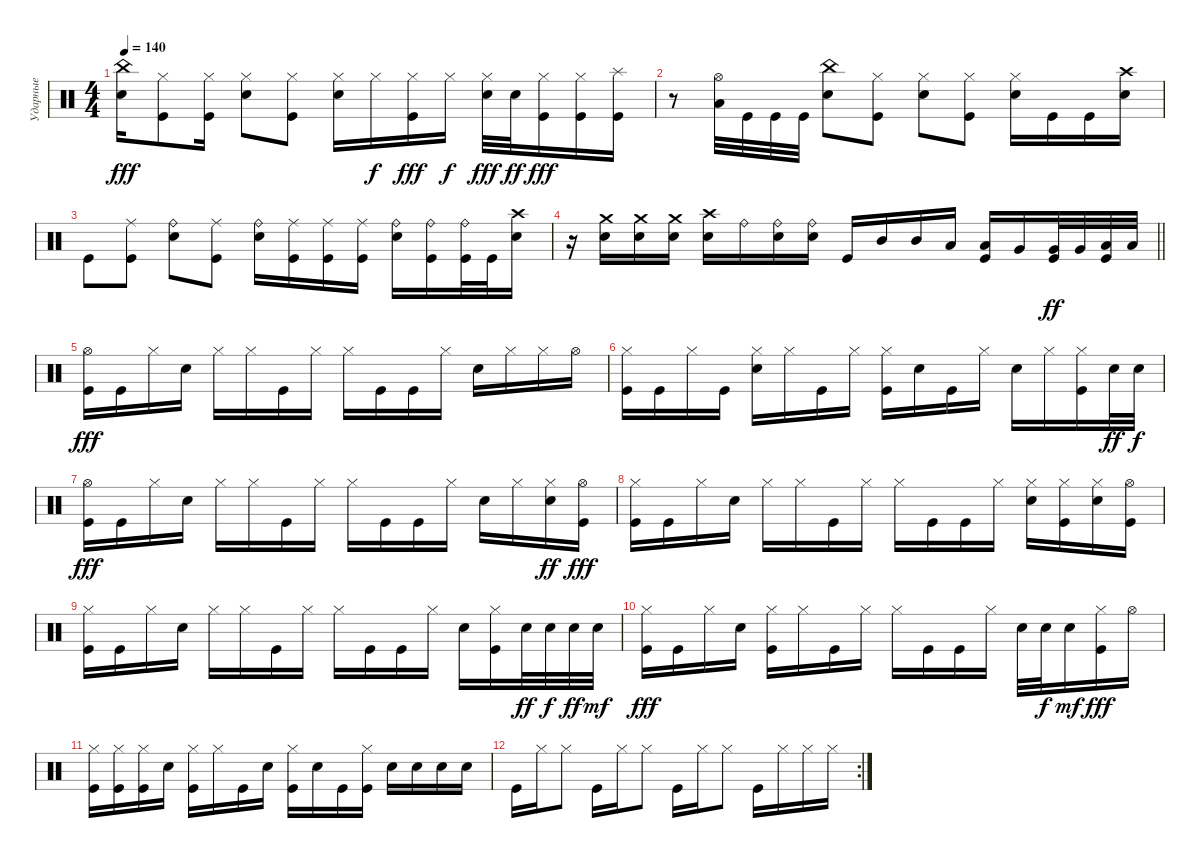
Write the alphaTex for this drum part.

\track ("Ударные" "Ударные") {instrument percussion}
\staff {score}
\articulation defaults
\ts (4 4)
\tempo 140
\clef neutral
\ks c
("China (hit)" "Electric Snare (hit)").16{dy fff} ("Hi-Hat (closed)" "Kick (hit)").8 ("Hi-Hat (closed)" "Kick (hit)").16 ("Hi-Hat (closed)" "Electric Snare (hit)").8 ("Hi-Hat (closed)" "Kick (hit)").8 ("Hi-Hat (closed)" "Electric Snare (hit)").16 "Hi-Hat (closed)".16{dy f} ("Hi-Hat (closed)" "Kick (hit)").16{dy fff} "Hi-Hat (closed)".16{dy f} ("Hi-Hat (closed)" "Electric Snare (hit)").32{dy fff} "Electric Snare (hit)".32{dy ff} ("Hi-Hat (closed)" "Kick (hit)").16{dy fff} ("Hi-Hat (closed)" "Kick (hit)").16 ("Splash (hit)" "Kick (hit)").16 |
r.8 ("Low Tom (hit)" "Hi-Hat (open)").32 "Kick (hit)".32 "Kick (hit)".32 "Kick (hit)".32 ("China (hit)" "Electric Snare (hit)").8 ("Hi-Hat (closed)" "Kick (hit)").8 ("Hi-Hat (closed)" "Electric Snare (hit)").8 ("Hi-Hat (closed)" "Kick (hit)").8 ("Hi-Hat (closed)" "Electric Snare (hit)").16 "Kick (hit)".16 "Kick (hit)".16 ("Crash high (hit)" "Electric Snare (hit)").16 |
"Kick (hit)".8 ("Ride (middle)" "Kick (hit)").8 ("Ride (bell)" "Electric Snare (hit)").8 ("Ride (middle)" "Kick (hit)").8 ("Ride (bell)" "Electric Snare (hit)").16 ("Ride (middle)" "Kick (hit)").16 ("Ride (middle)" "Kick (hit)").16 ("Ride (middle)" "Kick (hit)").16 ("Ride (bell)" "Electric Snare (hit)").16 ("Ride (bell)" "Kick (hit)").16 ("Ride (bell)" "Kick (hit)").32 "Kick (hit)".32 ("Crash high (hit)" "Electric Snare (hit)").16 |
\barLineRight lightlight
r.16 ("Crash medium (hit)" "Electric Snare (hit)").16 ("Crash medium (hit)" "Electric Snare (hit)").16 ("Crash medium (hit)" "Electric Snare (hit)").16 ("Crash high (hit)" "Electric Snare (hit)").16 "Ride (bell)".16 ("Ride (bell)" "Electric Snare (hit)").16 ("Ride (bell)" "Electric Snare (hit)").16 "Kick (hit)".16 "Mid Tom (hit)".16 "Mid Tom (hit)".16 "Low Tom (hit)".16 ("Low Tom (hit)" "Kick (hit)").16 "Very Low Tom (hit)".16 ("Very Low Tom (hit)" "Kick (hit)").32{dy ff} "Very Low Tom (hit)".32 ("Low Floor Tom (hit)" "Kick (hit)").32 "Low Floor Tom (hit)".32 |
("Hi-Hat (open)" "Kick (hit)").16{dy fff} "Kick (hit)".16 "Hi-Hat (closed)".16 "Electric Snare (hit)".16 "Hi-Hat (closed)".16 "Hi-Hat (closed)".16 "Kick (hit)".16 "Hi-Hat (closed)".16 "Hi-Hat (closed)".16 "Kick (hit)".16 "Kick (hit)".16 "Hi-Hat (closed)".16 "Electric Snare (hit)".16 "Hi-Hat (closed)".16 "Hi-Hat (closed)".16 "Hi-Hat (open)".16 |
("Hi-Hat (closed)" "Kick (hit)").16 "Kick (hit)".16 "Hi-Hat (closed)".16 "Kick (hit)".16 ("Hi-Hat (closed)" "Electric Snare (hit)").16 "Hi-Hat (closed)".16 "Kick (hit)".16 "Hi-Hat (closed)".16 ("Hi-Hat (closed)" "Kick (hit)").16 "Electric Snare (hit)".16 "Kick (hit)".16 "Hi-Hat (closed)".16 "Electric Snare (hit)".16 "Hi-Hat (closed)".16 ("Hi-Hat (closed)" "Kick (hit)").16 "Electric Snare (hit)".32{dy ff} "Electric Snare (hit)".32{dy f} |
("Hi-Hat (open)" "Kick (hit)").16{dy fff} "Kick (hit)".16 "Hi-Hat (closed)".16 "Electric Snare (hit)".16 "Hi-Hat (closed)".16 "Hi-Hat (closed)".16 "Kick (hit)".16 "Hi-Hat (closed)".16 "Hi-Hat (closed)".16 "Kick (hit)".16 "Kick (hit)".16 "Hi-Hat (closed)".16 "Electric Snare (hit)".16 "Hi-Hat (closed)".16 ("Hi-Hat (closed)" "Electric Snare (hit)").16{dy ff} ("Hi-Hat (open)" "Kick (hit)").16{dy fff} |
("Hi-Hat (closed)" "Kick (hit)").16 "Kick (hit)".16 "Hi-Hat (closed)".16 "Electric Snare (hit)".16 "Hi-Hat (closed)".16 "Hi-Hat (closed)".16 "Kick (hit)".16 "Hi-Hat (closed)".16 "Hi-Hat (closed)".16 "Kick (hit)".16 "Kick (hit)".16 "Hi-Hat (closed)".16 ("Hi-Hat (closed)" "Electric Snare (hit)").16 ("Hi-Hat (closed)" "Kick (hit)").16 ("Hi-Hat (closed)" "Electric Snare (hit)").16 ("Hi-Hat (open)" "Kick (hit)").16 |
("Hi-Hat (closed)" "Kick (hit)").16 "Kick (hit)".16 "Hi-Hat (closed)".16 "Electric Snare (hit)".16 "Hi-Hat (closed)".16 "Hi-Hat (closed)".16 "Kick (hit)".16 "Hi-Hat (closed)".16 "Hi-Hat (closed)".16 "Kick (hit)".16 "Kick (hit)".16 "Hi-Hat (closed)".16 "Electric Snare (hit)".16 ("Hi-Hat (closed)" "Kick (hit)").16 "Electric Snare (hit)".32{dy ff} "Electric Snare (hit)".32{dy f} "Electric Snare (hit)".32{dy ff} "Electric Snare (hit)".32{dy mf} |
("Hi-Hat (closed)" "Kick (hit)").16{dy fff} "Kick (hit)".16 "Hi-Hat (closed)".16 "Electric Snare (hit)".16 ("Hi-Hat (closed)" "Kick (hit)").16 "Hi-Hat (closed)".16 "Kick (hit)".16 "Hi-Hat (closed)".16 "Hi-Hat (closed)".16 "Kick (hit)".16 "Kick (hit)".16 "Hi-Hat (closed)".16 "Electric Snare (hit)".32 "Electric Snare (hit)".32{dy f} "Electric Snare (hit)".16{dy mf} ("Hi-Hat (closed)" "Kick (hit)").16{dy fff} "Hi-Hat (open)".16 |
("Hi-Hat (closed)" "Kick (hit)").16 ("Hi-Hat (closed)" "Kick (hit)").16 ("Hi-Hat (closed)" "Kick (hit)").16 "Electric Snare (hit)".16 ("Hi-Hat (closed)" "Kick (hit)").16 "Hi-Hat (closed)".16 "Kick (hit)".16 "Electric Snare (hit)".16 ("Hi-Hat (closed)" "Kick (hit)").16 "Electric Snare (hit)".16 "Kick (hit)".16 ("Hi-Hat (closed)" "Kick (hit)").16 "Electric Snare (hit)".16 "Electric Snare (hit)".16 "Electric Snare (hit)".16 "Electric Snare (hit)".16 |
\rc 2 "Kick (hit)".16 "Hi-Hat (closed)".16 "Hi-Hat (closed)".8 "Kick (hit)".16 "Hi-Hat (closed)".16 "Hi-Hat (closed)".8 "Kick (hit)".16 "Hi-Hat (closed)".16 "Hi-Hat (closed)".8 "Kick (hit)".16 "Hi-Hat (closed)".16 "Hi-Hat (closed)".16 "Hi-Hat (closed)".16
